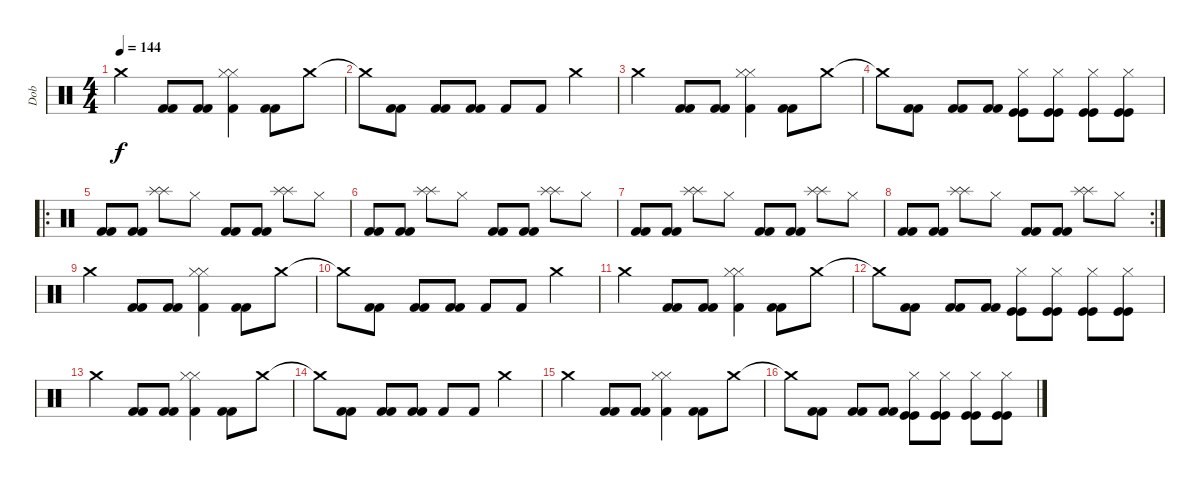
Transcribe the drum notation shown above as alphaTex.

\track ("Dob" "Dob") {instrument percussion}
\staff {score}
\articulation defaults
\ts (4 4)
\tempo 144
\clef neutral
\ks c "Crash medium (hit)".4{dy f}
("Kick (hit) 2" "Kick (hit) 2").8 ("Kick (hit) 2" "Kick (hit) 2").8 ("Hi-Hat (closed)" "Hi-Hat (closed)" "Kick (hit) 2").4 ("Kick (hit) 2" "Kick (hit) 2").8 "Crash medium (hit)".8 |
"Crash medium (hit)"{t}.8 ("Kick (hit) 2" "Kick (hit) 2").8 ("Kick (hit) 2" "Kick (hit) 2").8 ("Kick (hit) 2" "Kick (hit) 2").8 "Kick (hit) 2".8 "Kick (hit) 2".8 "Crash medium (hit)".4 |
"Crash medium (hit)".4 ("Kick (hit) 2" "Kick (hit) 2").8 ("Kick (hit) 2" "Kick (hit) 2").8 ("Hi-Hat (closed)" "Hi-Hat (closed)" "Kick (hit) 2").4 ("Kick (hit) 2" "Kick (hit) 2").8 "Crash medium (hit)".8 |
"Crash medium (hit)"{t}.8 ("Kick (hit) 2" "Kick (hit) 2").8 ("Kick (hit) 2" "Kick (hit) 2").8 ("Kick (hit) 2" "Kick (hit) 2").8 ("Hi-Hat (closed)" "Kick (hit)" "Kick (hit)").8 ("Hi-Hat (closed)" "Kick (hit)" "Kick (hit)").8 ("Hi-Hat (closed)" "Kick (hit)" "Kick (hit)").8 ("Hi-Hat (closed)" "Kick (hit)" "Kick (hit)").8 |
\ro
("Kick (hit) 2" "Kick (hit) 2").8 ("Kick (hit) 2" "Kick (hit) 2").8 ("Splash (hit)" "Splash (hit)").8 "Hi-Hat (closed)".8 ("Kick (hit) 2" "Kick (hit) 2").8 ("Kick (hit) 2" "Kick (hit) 2").8 ("Splash (hit)" "Splash (hit)").8 "Hi-Hat (closed)".8 |
("Kick (hit) 2" "Kick (hit) 2").8 ("Kick (hit) 2" "Kick (hit) 2").8 ("Splash (hit)" "Splash (hit)").8 "Hi-Hat (closed)".8 ("Kick (hit) 2" "Kick (hit) 2").8 ("Kick (hit) 2" "Kick (hit) 2").8 ("Splash (hit)" "Splash (hit)").8 "Hi-Hat (closed)".8 |
("Kick (hit) 2" "Kick (hit) 2").8 ("Kick (hit) 2" "Kick (hit) 2").8 ("Splash (hit)" "Splash (hit)").8 "Hi-Hat (closed)".8 ("Kick (hit) 2" "Kick (hit) 2").8 ("Kick (hit) 2" "Kick (hit) 2").8 ("Splash (hit)" "Splash (hit)").8 "Hi-Hat (closed)".8 |
\rc 2
("Kick (hit) 2" "Kick (hit) 2").8 ("Kick (hit) 2" "Kick (hit) 2").8 ("Splash (hit)" "Splash (hit)").8 "Hi-Hat (closed)".8 ("Kick (hit) 2" "Kick (hit) 2").8 ("Kick (hit) 2" "Kick (hit) 2").8 ("Splash (hit)" "Splash (hit)").8 "Hi-Hat (closed)".8 |
"Crash medium (hit)".4 ("Kick (hit) 2" "Kick (hit) 2").8 ("Kick (hit) 2" "Kick (hit) 2").8 ("Hi-Hat (closed)" "Hi-Hat (closed)" "Kick (hit) 2").4 ("Kick (hit) 2" "Kick (hit) 2").8 "Crash medium (hit)".8 |
"Crash medium (hit)"{t}.8 ("Kick (hit) 2" "Kick (hit) 2").8 ("Kick (hit) 2" "Kick (hit) 2").8 ("Kick (hit) 2" "Kick (hit) 2").8 "Kick (hit) 2".8 "Kick (hit) 2".8 "Crash medium (hit)".4 |
"Crash medium (hit)".4 ("Kick (hit) 2" "Kick (hit) 2").8 ("Kick (hit) 2" "Kick (hit) 2").8 ("Hi-Hat (closed)" "Hi-Hat (closed)" "Kick (hit) 2").4 ("Kick (hit) 2" "Kick (hit) 2").8 "Crash medium (hit)".8 |
"Crash medium (hit)"{t}.8 ("Kick (hit) 2" "Kick (hit) 2").8 ("Kick (hit) 2" "Kick (hit) 2").8 ("Kick (hit) 2" "Kick (hit) 2").8 ("Hi-Hat (closed)" "Kick (hit)" "Kick (hit)").8 ("Hi-Hat (closed)" "Kick (hit)" "Kick (hit)").8 ("Hi-Hat (closed)" "Kick (hit)" "Kick (hit)").8 ("Hi-Hat (closed)" "Kick (hit)" "Kick (hit)").8 |
"Crash medium (hit)".4 ("Kick (hit) 2" "Kick (hit) 2").8 ("Kick (hit) 2" "Kick (hit) 2").8 ("Hi-Hat (closed)" "Hi-Hat (closed)" "Kick (hit) 2").4 ("Kick (hit) 2" "Kick (hit) 2").8 "Crash medium (hit)".8 |
"Crash medium (hit)"{t}.8 ("Kick (hit) 2" "Kick (hit) 2").8 ("Kick (hit) 2" "Kick (hit) 2").8 ("Kick (hit) 2" "Kick (hit) 2").8 "Kick (hit) 2".8 "Kick (hit) 2".8 "Crash medium (hit)".4 |
"Crash medium (hit)".4 ("Kick (hit) 2" "Kick (hit) 2").8 ("Kick (hit) 2" "Kick (hit) 2").8 ("Hi-Hat (closed)" "Hi-Hat (closed)" "Kick (hit) 2").4 ("Kick (hit) 2" "Kick (hit) 2").8 "Crash medium (hit)".8 |
"Crash medium (hit)"{t}.8 ("Kick (hit) 2" "Kick (hit) 2").8 ("Kick (hit) 2" "Kick (hit) 2").8 ("Kick (hit) 2" "Kick (hit) 2").8 ("Hi-Hat (closed)" "Kick (hit)" "Kick (hit)").8 ("Hi-Hat (closed)" "Kick (hit)" "Kick (hit)").8 ("Hi-Hat (closed)" "Kick (hit)" "Kick (hit)").8 ("Hi-Hat (closed)" "Kick (hit)" "Kick (hit)").8
